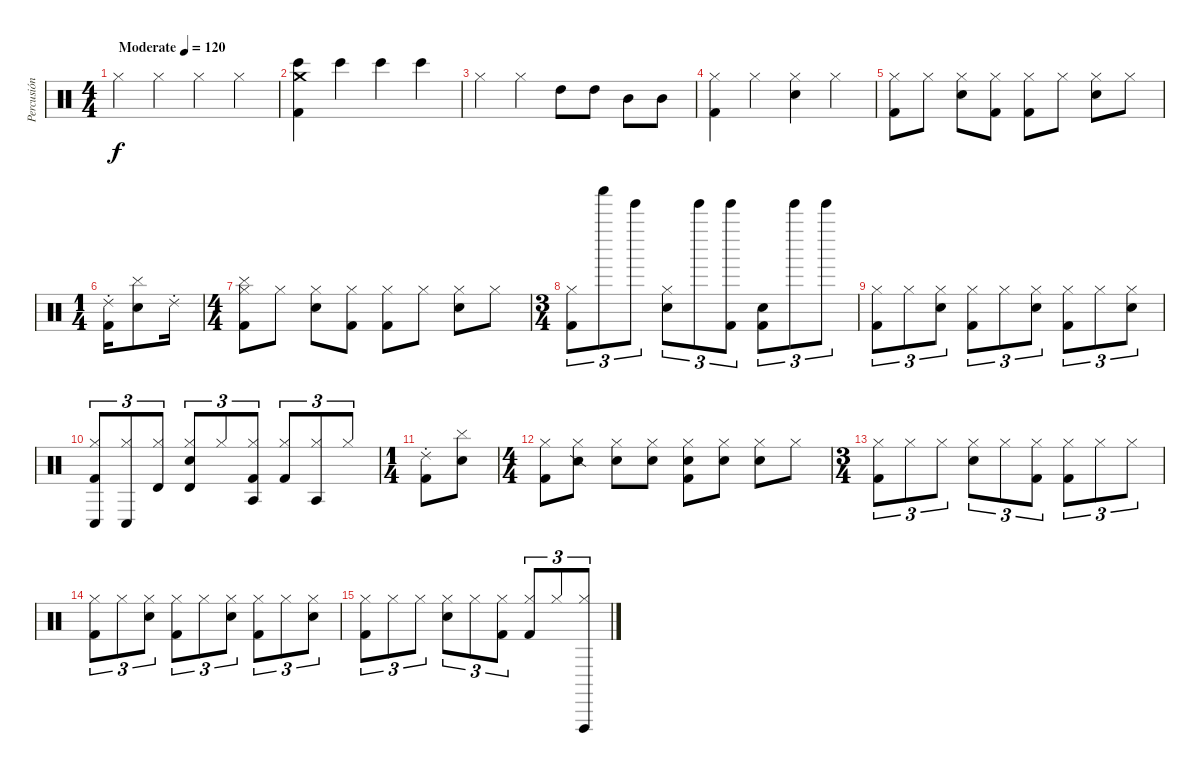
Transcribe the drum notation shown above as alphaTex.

\track ("Percusión" "Percusión") {instrument percussion}
\staff {score}
\articulation defaults
\ts (4 4)
\tempo (120 "Moderate")
\clef neutral
\ks c "Hi-Hat (closed)".4{dy f} "Hi-Hat (closed)".4 "Hi-Hat (closed)".4 "Hi-Hat (closed)".4
|
("Kick (hit) 2" "Bongo High (hit)" "Crash medium (hit)").4 "Bongo High (hit)".4 "Bongo High (hit)".4 "Bongo High (hit)".4 |
"Hi-Hat (closed)".4 "Hi-Hat (closed)".4 "High Tom (hit)".8 "High Tom (hit)".8 "Mid Tom (hit)".8 "Mid Tom (hit)".8 |
("Kick (hit) 2" "Hi-Hat (closed)").4 "Hi-Hat (closed)".4 ("Snare (hit) 2" "Hi-Hat (closed)").4 "Hi-Hat (closed)".4 |
("Kick (hit) 2" "Hi-Hat (closed)").8 "Hi-Hat (closed)".8 ("Snare (hit) 2" "Hi-Hat (closed)").8 ("Kick (hit) 2" "Hi-Hat (closed)").8 ("Kick (hit) 2" "Hi-Hat (closed)").8 "Hi-Hat (closed)".8 ("Snare (hit) 2" "Hi-Hat (closed)").8 "Hi-Hat (closed)".8 |
\ts (1 4)
("Kick (hit) 2" "Ride (choke) 2").16 ("Snare (hit) 2" "Cymbal (hit)").8 "Ride (choke) 2".16 |
\ts (4 4)
("Kick (hit) 2" "Cymbal (hit)" "Hi-Hat (closed)").8 "Hi-Hat (closed)".8 ("Snare (hit) 2" "Hi-Hat (closed)").8 ("Kick (hit) 2" "Hi-Hat (closed)").8 ("Kick (hit) 2" "Hi-Hat (closed)").8 "Hi-Hat (closed)".8 ("Snare (hit) 2" "Hi-Hat (closed)").8 "Hi-Hat (closed)".8 |
\ts (3 4)
("Kick (hit) 2" "Hi-Hat (closed)").8{tu (3 2)} "Shaker (hit)".8{tu (3 2)} "Tinkle Bell (hit)".8{tu (3 2)} ("Snare (hit) 2" "Hi-Hat (closed)").8{tu (3 2)} "Tinkle Bell (hit)".8{tu (3 2)} ("Kick (hit) 2" "Tinkle Bell (hit)").8{tu (3 2)} ("Kick (hit) 2" "Snare (hit) 2").8{tu (3 2)} "Tinkle Bell (hit)".8{tu (3 2)} "Tinkle Bell (hit)".8{tu (3 2)} |
("Kick (hit) 2" "Hi-Hat (closed)").8{tu (3 2)} "Hi-Hat (closed)".8{tu (3 2)} ("Snare (hit) 2" "Hi-Hat (closed)").8{tu (3 2)} ("Kick (hit) 2" "Hi-Hat (closed)").8{tu (3 2)} "Hi-Hat (closed)".8{tu (3 2)} ("Snare (hit) 2" "Hi-Hat (closed)").8{tu (3 2)} ("Kick (hit) 2" "Hi-Hat (closed)").8{tu (3 2)} "Hi-Hat (closed)".8{tu (3 2)} ("Snare (hit) 2" "Hi-Hat (closed)").8{tu (3 2)} |
("Kick (hit) 2" "Conga low (hit)" "Hi-Hat (closed)").8{tu (3 2)} ("Conga low (hit)" "Hi-Hat (closed)").8{tu (3 2)} ("Timbale high (hit)" "Hi-Hat (closed)").8{tu (3 2)} ("Snare (hit) 2" "Timbale high (hit)" "Hi-Hat (closed)").8{tu (3 2)} "Hi-Hat (closed)".8{tu (3 2)} ("Kick (hit) 2" "Agogo tow (hit)" "Hi-Hat (closed)").8{tu (3 2)} ("Kick (hit) 2" "Hi-Hat (closed)").8{tu (3 2)} ("Agogo tow (hit)" "Hi-Hat (closed)").8{tu (3 2)} "Hi-Hat (closed)".8{tu (3 2)} |
\ts (1 4)
("Kick (hit) 2" "Ride (choke) 2").8 ("Snare (hit) 2" "Cymbal (hit)").8 |
\ts (4 4)
("Kick (hit) 2" "Hi-Hat (closed)").8 ("Snare (side stick) 2" "Hi-Hat (closed)").8 ("Snare (hit) 2" "Hi-Hat (closed)").8 ("Hand Clap (hit)" "Hi-Hat (closed)").8 ("Kick (hit) 2" "Hand Clap (hit)" "Hi-Hat (closed)").8 ("Hand Clap (hit)" "Hi-Hat (closed)").8 ("Snare (hit) 2" "Hi-Hat (closed)").8 "Hi-Hat (closed)".8 |
\ts (3 4)
("Kick (hit) 2" "Hi-Hat (closed)").8{tu (3 2)} "Hi-Hat (closed)".8{tu (3 2)} "Hi-Hat (closed)".8{tu (3 2)} ("Snare (hit) 2" "Hi-Hat (closed)").8{tu (3 2)} "Hi-Hat (closed)".8{tu (3 2)} ("Kick (hit) 2" "Hi-Hat (closed)").8{tu (3 2)} ("Kick (hit) 2" "Hi-Hat (closed)").8{tu (3 2)} "Hi-Hat (closed)".8{tu (3 2)} "Hi-Hat (closed)".8{tu (3 2)} |
("Kick (hit) 2" "Hi-Hat (closed)").8{tu (3 2)} "Hi-Hat (closed)".8{tu (3 2)} ("Snare (hit) 2" "Hi-Hat (closed)").8{tu (3 2)} ("Kick (hit) 2" "Hi-Hat (closed)").8{tu (3 2)} "Hi-Hat (closed)".8{tu (3 2)} ("Snare (hit) 2" "Hi-Hat (closed)").8{tu (3 2)} ("Kick (hit) 2" "Hi-Hat (closed)").8{tu (3 2)} "Hi-Hat (closed)".8{tu (3 2)} ("Snare (hit) 2" "Hi-Hat (closed)").8{tu (3 2)} |
("Kick (hit) 2" "Hi-Hat (closed)").8{tu (3 2)} "Hi-Hat (closed)".8{tu (3 2)} "Hi-Hat (closed)".8{tu (3 2)} ("Snare (hit) 2" "Hi-Hat (closed)").8{tu (3 2)} "Hi-Hat (closed)".8{tu (3 2)} ("Kick (hit) 2" "Hi-Hat (closed)").8{tu (3 2)} ("Kick (hit) 2" "Hi-Hat (closed)").8{tu (3 2)} "Hi-Hat (closed)".8{tu (3 2)} ("Vibraslap (hit)" "Hi-Hat (closed)").8{tu (3 2)}
